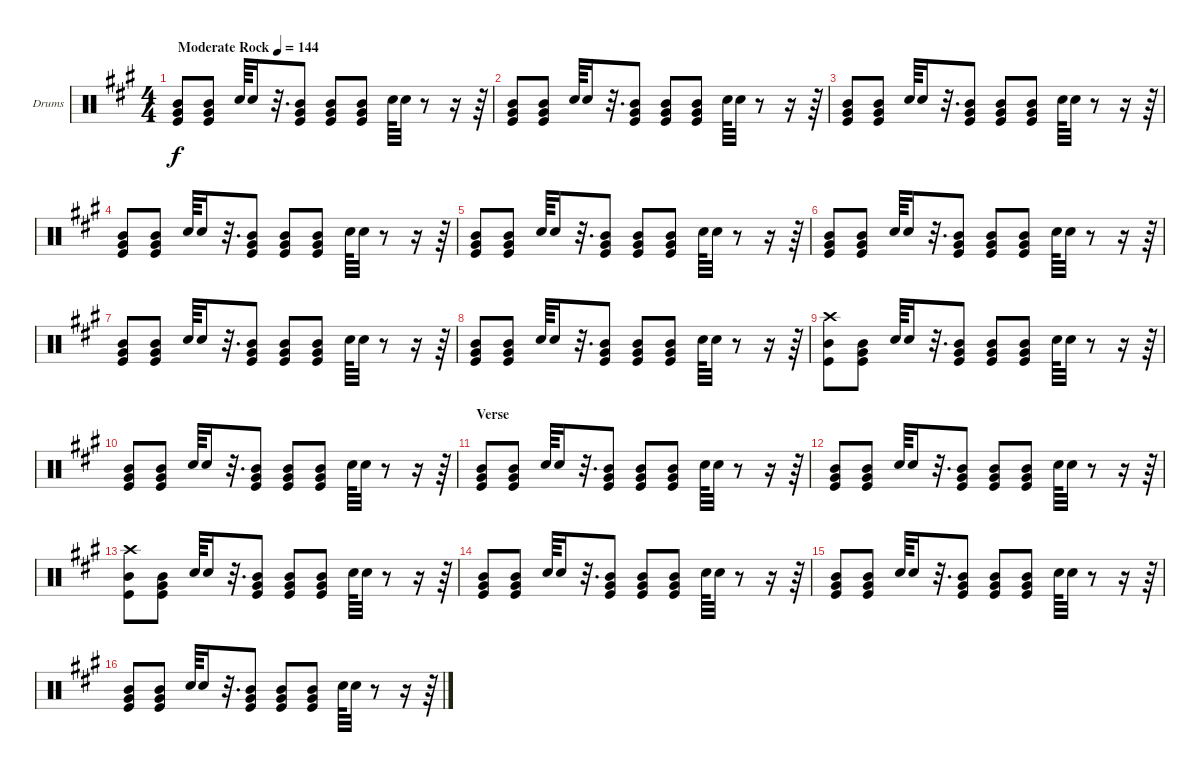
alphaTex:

\defaultSystemsLayout 4
\bracketExtendMode groupsimilarinstruments
\firstSystemTrackNameOrientation horizontal
\otherSystemsTrackNameOrientation horizontal
\track ("Drumkit" "Drums") {instrument percussion}
\staff {score}
\articulation defaults
\ts (4 4)
\tempo (144 "Moderate Rock")
\clef neutral
\scale
1.08827
\ks a
("Mid Tom (hit)" "Very Low Tom (hit)" "Kick (hit)").8{dy f} ("Mid Tom (hit)" "Very Low Tom (hit)" "Kick (hit)").8 "Snare (hit) 2".64 "Snare (hit) 2".16 r.32{d} ("Mid Tom (hit)" "Very Low Tom (hit)" "Kick (hit)").8 ("Mid Tom (hit)" "Very Low Tom (hit)" "Kick (hit)").8 ("Mid Tom (hit)" "Very Low Tom (hit)" "Kick (hit)").8 "Snare (hit) 2".64 "Snare (hit) 2".32 r.8 r.16 r.64 |
\scale
0.911728 ("Mid Tom (hit)" "Very Low Tom (hit)" "Kick (hit)").8 ("Mid Tom (hit)" "Very Low Tom (hit)" "Kick (hit)").8 "Snare (hit) 2".64 "Snare (hit) 2".16 r.32{d} ("Mid Tom (hit)" "Very Low Tom (hit)" "Kick (hit)").8 ("Mid Tom (hit)" "Very Low Tom (hit)" "Kick (hit)").8 ("Mid Tom (hit)" "Very Low Tom (hit)" "Kick (hit)").8 "Snare (hit) 2".64 "Snare (hit) 2".32 r.8 r.16 r.64 |
\scale
1.05801 ("Mid Tom (hit)" "Very Low Tom (hit)" "Kick (hit)").8 ("Mid Tom (hit)" "Very Low Tom (hit)" "Kick (hit)").8 "Snare (hit) 2".64 "Snare (hit) 2".16 r.32{d} ("Mid Tom (hit)" "Very Low Tom (hit)" "Kick (hit)").8 ("Mid Tom (hit)" "Very Low Tom (hit)" "Kick (hit)").8 ("Mid Tom (hit)" "Very Low Tom (hit)" "Kick (hit)").8 "Snare (hit) 2".64 "Snare (hit) 2".32 r.8 r.16 r.64 |
\scale
0.941992 ("Mid Tom (hit)" "Very Low Tom (hit)" "Kick (hit)").8 ("Mid Tom (hit)" "Very Low Tom (hit)" "Kick (hit)").8 "Snare (hit) 2".64 "Snare (hit) 2".16 r.32{d} ("Mid Tom (hit)" "Very Low Tom (hit)" "Kick (hit)").8 ("Mid Tom (hit)" "Very Low Tom (hit)" "Kick (hit)").8 ("Mid Tom (hit)" "Very Low Tom (hit)" "Kick (hit)").8 "Snare (hit) 2".64 "Snare (hit) 2".32 r.8 r.16 r.64 |
\scale
1.05801 ("Mid Tom (hit)" "Very Low Tom (hit)" "Kick (hit)").8 ("Mid Tom (hit)" "Very Low Tom (hit)" "Kick (hit)").8 "Snare (hit) 2".64 "Snare (hit) 2".16 r.32{d} ("Mid Tom (hit)" "Very Low Tom (hit)" "Kick (hit)").8 ("Mid Tom (hit)" "Very Low Tom (hit)" "Kick (hit)").8 ("Mid Tom (hit)" "Very Low Tom (hit)" "Kick (hit)").8 "Snare (hit) 2".64 "Snare (hit) 2".32 r.8 r.16 r.64 |
\scale
0.941992 ("Mid Tom (hit)" "Very Low Tom (hit)" "Kick (hit)").8 ("Mid Tom (hit)" "Very Low Tom (hit)" "Kick (hit)").8 "Snare (hit) 2".64 "Snare (hit) 2".16 r.32{d} ("Mid Tom (hit)" "Very Low Tom (hit)" "Kick (hit)").8 ("Mid Tom (hit)" "Very Low Tom (hit)" "Kick (hit)").8 ("Mid Tom (hit)" "Very Low Tom (hit)" "Kick (hit)").8 "Snare (hit) 2".64 "Snare (hit) 2".32 r.8 r.16 r.64 |
\scale
1.05801 ("Mid Tom (hit)" "Very Low Tom (hit)" "Kick (hit)").8 ("Mid Tom (hit)" "Very Low Tom (hit)" "Kick (hit)").8 "Snare (hit) 2".64 "Snare (hit) 2".16 r.32{d} ("Mid Tom (hit)" "Very Low Tom (hit)" "Kick (hit)").8 ("Mid Tom (hit)" "Very Low Tom (hit)" "Kick (hit)").8 ("Mid Tom (hit)" "Very Low Tom (hit)" "Kick (hit)").8 "Snare (hit) 2".64 "Snare (hit) 2".32 r.8 r.16 r.64 |
\scale
0.941992 ("Mid Tom (hit)" "Very Low Tom (hit)" "Kick (hit)").8 ("Mid Tom (hit)" "Very Low Tom (hit)" "Kick (hit)").8 "Snare (hit) 2".64 "Snare (hit) 2".16 r.32{d} ("Mid Tom (hit)" "Very Low Tom (hit)" "Kick (hit)").8 ("Mid Tom (hit)" "Very Low Tom (hit)" "Kick (hit)").8 ("Mid Tom (hit)" "Very Low Tom (hit)" "Kick (hit)").8 "Snare (hit) 2".64 "Snare (hit) 2".32 r.8 r.16 r.64 |
\scale
1.05801 ("Crash high (hit)" "Mid Tom (hit)" "Kick (hit)").8 ("Mid Tom (hit)" "Very Low Tom (hit)" "Kick (hit)").8 "Snare (hit) 2".64 "Snare (hit) 2".16 r.32{d} ("Mid Tom (hit)" "Very Low Tom (hit)" "Kick (hit)").8 ("Mid Tom (hit)" "Very Low Tom (hit)" "Kick (hit)").8 ("Mid Tom (hit)" "Very Low Tom (hit)" "Kick (hit)").8 "Snare (hit) 2".64 "Snare (hit) 2".32 r.8 r.16 r.64 |
\scale
0.941992 ("Mid Tom (hit)" "Very Low Tom (hit)" "Kick (hit)").8 ("Mid Tom (hit)" "Very Low Tom (hit)" "Kick (hit)").8 "Snare (hit) 2".64 "Snare (hit) 2".16 r.32{d} ("Mid Tom (hit)" "Very Low Tom (hit)" "Kick (hit)").8 ("Mid Tom (hit)" "Very Low Tom (hit)" "Kick (hit)").8 ("Mid Tom (hit)" "Very Low Tom (hit)" "Kick (hit)").8 "Snare (hit) 2".64 "Snare (hit) 2".32 r.8 r.16 r.64 |
\section ("" "Verse")
\scale
1.05801 ("Mid Tom (hit)" "Very Low Tom (hit)" "Kick (hit)").8 ("Mid Tom (hit)" "Very Low Tom (hit)" "Kick (hit)").8 "Snare (hit) 2".64 "Snare (hit) 2".16 r.32{d} ("Mid Tom (hit)" "Very Low Tom (hit)" "Kick (hit)").8 ("Mid Tom (hit)" "Very Low Tom (hit)" "Kick (hit)").8 ("Mid Tom (hit)" "Very Low Tom (hit)" "Kick (hit)").8 "Snare (hit) 2".64 "Snare (hit) 2".32 r.8 r.16 r.64 |
\scale
0.941992 ("Mid Tom (hit)" "Very Low Tom (hit)" "Kick (hit)").8 ("Mid Tom (hit)" "Very Low Tom (hit)" "Kick (hit)").8 "Snare (hit) 2".64 "Snare (hit) 2".16 r.32{d} ("Mid Tom (hit)" "Very Low Tom (hit)" "Kick (hit)").8 ("Mid Tom (hit)" "Very Low Tom (hit)" "Kick (hit)").8 ("Mid Tom (hit)" "Very Low Tom (hit)" "Kick (hit)").8 "Snare (hit) 2".64 "Snare (hit) 2".32 r.8 r.16 r.64 |
\scale
1.05801 ("Crash high (hit)" "Mid Tom (hit)" "Kick (hit)").8 ("Mid Tom (hit)" "Very Low Tom (hit)" "Kick (hit)").8 "Snare (hit) 2".64 "Snare (hit) 2".16 r.32{d} ("Mid Tom (hit)" "Very Low Tom (hit)" "Kick (hit)").8 ("Mid Tom (hit)" "Very Low Tom (hit)" "Kick (hit)").8 ("Mid Tom (hit)" "Very Low Tom (hit)" "Kick (hit)").8 "Snare (hit) 2".64 "Snare (hit) 2".32 r.8 r.16 r.64 |
\scale
0.941992 ("Mid Tom (hit)" "Very Low Tom (hit)" "Kick (hit)").8 ("Mid Tom (hit)" "Very Low Tom (hit)" "Kick (hit)").8 "Snare (hit) 2".64 "Snare (hit) 2".16 r.32{d} ("Mid Tom (hit)" "Very Low Tom (hit)" "Kick (hit)").8 ("Mid Tom (hit)" "Very Low Tom (hit)" "Kick (hit)").8 ("Mid Tom (hit)" "Very Low Tom (hit)" "Kick (hit)").8 "Snare (hit) 2".64 "Snare (hit) 2".32 r.8 r.16 r.64 |
\scale
1.05801 ("Mid Tom (hit)" "Very Low Tom (hit)" "Kick (hit)").8 ("Mid Tom (hit)" "Very Low Tom (hit)" "Kick (hit)").8 "Snare (hit) 2".64 "Snare (hit) 2".16 r.32{d} ("Mid Tom (hit)" "Very Low Tom (hit)" "Kick (hit)").8 ("Mid Tom (hit)" "Very Low Tom (hit)" "Kick (hit)").8 ("Mid Tom (hit)" "Very Low Tom (hit)" "Kick (hit)").8 "Snare (hit) 2".64 "Snare (hit) 2".32 r.8 r.16 r.64 |
\scale
0.941992 ("Mid Tom (hit)" "Very Low Tom (hit)" "Kick (hit)").8 ("Mid Tom (hit)" "Very Low Tom (hit)" "Kick (hit)").8 "Snare (hit) 2".64 "Snare (hit) 2".16 r.32{d} ("Mid Tom (hit)" "Very Low Tom (hit)" "Kick (hit)").8 ("Mid Tom (hit)" "Very Low Tom (hit)" "Kick (hit)").8 ("Mid Tom (hit)" "Very Low Tom (hit)" "Kick (hit)").8 "Snare (hit) 2".64 "Snare (hit) 2".32 r.8 r.16 r.64
